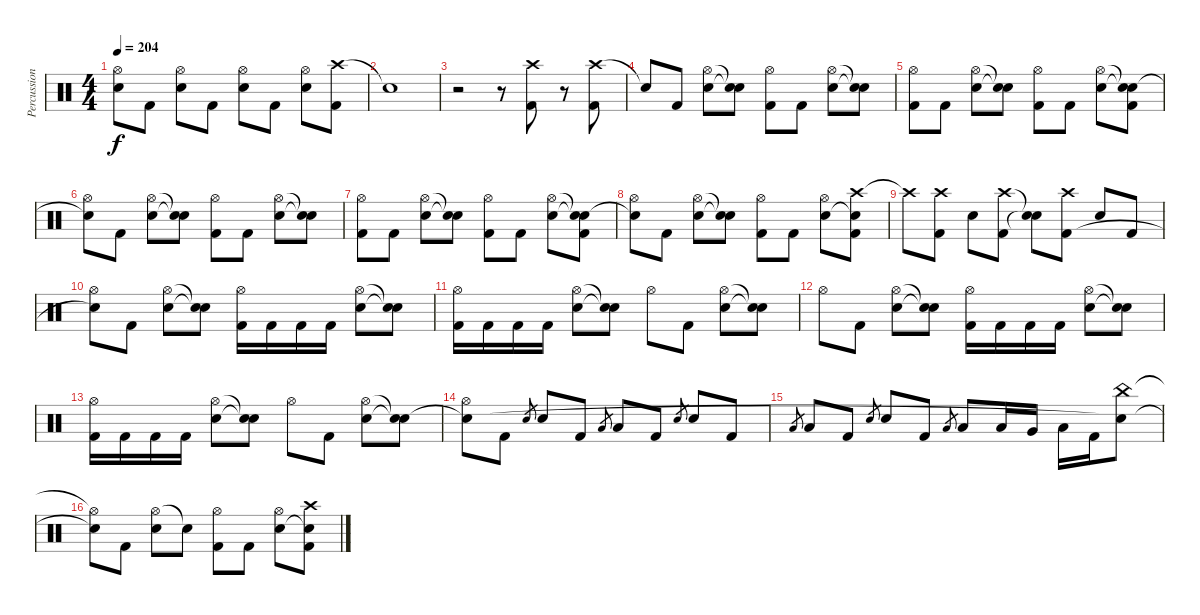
\track ("Percussion" "Percussion") {instrument percussion}
\staff {score}
\articulation defaults
\ts (4 4)
\tempo 204
\clef neutral
\ks c
("Hi-Hat (open)" "Electric Snare (hit)").8{dy f} "Kick (hit) 2".8 ("Hi-Hat (open)" "Electric Snare (hit)").8 "Kick (hit) 2".8 ("Hi-Hat (open)" "Electric Snare (hit)").8 "Kick (hit) 2".8 ("Hi-Hat (open)" "Electric Snare (hit)").8 ("Crash high (hit)" "Kick (hit) 2").8 |
"Snare (hit)"{t}.1 |
r.2 r.8 ("Crash high (hit)" "Kick (hit) 2").8 r.8 ("Crash high (hit)" "Kick (hit) 2").8 |
"Snare (hit)"{t}.8 "Kick (hit) 2".8 ("Hi-Hat (open)" "Electric Snare (hit)").8 ("Snare (hit)"{t} "Snare (hit)"{t}).8 ("Hi-Hat (open)" "Kick (hit) 2").8 "Kick (hit) 2".8 ("Hi-Hat (open)" "Electric Snare (hit)").8 ("Snare (hit)"{t} "Snare (hit)"{t}).8 |
("Hi-Hat (open)" "Kick (hit) 2").8 "Kick (hit) 2".8 ("Hi-Hat (open)" "Electric Snare (hit)").8 ("Snare (hit)"{t} "Snare (hit)"{t}).8 ("Hi-Hat (open)" "Kick (hit) 2").8 "Kick (hit) 2".8 ("Hi-Hat (open)" "Electric Snare (hit)").8 ("Snare (hit)"{t} "Snare (hit)"{t} "Kick (hit) 2").8 |
("Hi-Hat (open)" "Snare (hit)"{t}).8 "Kick (hit) 2".8 ("Hi-Hat (open)" "Electric Snare (hit)").8 ("Snare (hit)"{t} "Snare (hit)"{t}).8 ("Hi-Hat (open)" "Kick (hit) 2").8 "Kick (hit) 2".8 ("Hi-Hat (open)" "Electric Snare (hit)").8 ("Snare (hit)"{t} "Snare (hit)"{t}).8 |
("Hi-Hat (open)" "Kick (hit) 2").8 "Kick (hit) 2".8 ("Hi-Hat (open)" "Electric Snare (hit)").8 ("Snare (hit)"{t} "Snare (hit)"{t}).8 ("Hi-Hat (open)" "Kick (hit) 2").8 "Kick (hit) 2".8 ("Hi-Hat (open)" "Electric Snare (hit)").8 ("Snare (hit)"{t} "Snare (hit)"{t} "Kick (hit) 2").8 |
("Hi-Hat (open)" "Snare (hit)"{t}).8 "Kick (hit) 2".8 ("Hi-Hat (open)" "Snare (hit) 2").8 ("Snare (hit)"{t} "Snare (hit)"{t}).8 ("Hi-Hat (open)" "Kick (hit) 2").8 "Kick (hit) 2".8 ("Hi-Hat (open)" "Electric Snare (hit)").8 ("Crash high (hit)" "Snare (hit)"{t} "Kick (hit) 2").8 |
"Crash high (hit)"{t}.8 ("Crash high (hit)" "Kick (hit) 2").8 "Electric Snare (hit)".8 ("Crash high (hit)" "Kick (hit) 2").8 ("Snare (hit)"{t} "Snare (hit)"{t}).8 ("Crash high (hit)" "Kick (hit) 2").8 "Electric Snare (hit)".8 "Kick (hit) 2".8 |
("Hi-Hat (open)" "Snare (hit)"{t}).8 "Kick (hit) 2".8 ("Hi-Hat (open)" "Electric Snare (hit)").8 ("Snare (hit)"{t} "Snare (hit)"{t}).8 ("Hi-Hat (open)" "Kick (hit) 2").16 "Kick (hit) 2".16 "Kick (hit) 2".16 "Kick (hit) 2".16 ("Hi-Hat (open)" "Electric Snare (hit)").8 ("Snare (hit)"{t} "Snare (hit)"{t}).8 |
("Hi-Hat (open)" "Kick (hit) 2").16 "Kick (hit) 2".16 "Kick (hit) 2".16 "Kick (hit) 2".16 ("Hi-Hat (open)" "Electric Snare (hit)").8 ("Snare (hit)"{t} "Snare (hit)"{t}).8 "Hi-Hat (open)".8 "Kick (hit) 2".8 ("Hi-Hat (open)" "Electric Snare (hit)").8 ("Snare (hit)"{t} "Snare (hit)"{t}).8 |
"Hi-Hat (open)".8 "Kick (hit) 2".8 ("Hi-Hat (open)" "Electric Snare (hit)").8 ("Snare (hit)"{t} "Snare (hit)"{t}).8 ("Hi-Hat (open)" "Kick (hit) 2").16 "Kick (hit) 2".16 "Kick (hit) 2".16 "Kick (hit) 2".16 ("Hi-Hat (open)" "Electric Snare (hit)").8 ("Snare (hit)"{t} "Snare (hit)"{t}).8 |
("Hi-Hat (open)" "Kick (hit) 2").16 "Kick (hit) 2".16 "Kick (hit) 2".16 "Kick (hit) 2".16 ("Hi-Hat (open)" "Electric Snare (hit)").8 ("Snare (hit)"{t} "Snare (hit)"{t}).8 "Hi-Hat (open)".8 "Kick (hit) 2".8 ("Hi-Hat (open)" "Electric Snare (hit)").8 ("Snare (hit)"{t} "Snare (hit)"{t}).8 |
("Hi-Hat (open)" "Snare (hit)"{t}).8 "Kick (hit) 2".8 "Snare (hit) 2".8{gr} "Electric Snare (hit)".8 "Kick (hit) 2".8 "Low Tom (hit)".8{gr} "Low Tom (hit)".8 "Kick (hit) 2".8 "Snare (hit) 2".8{gr} "Electric Snare (hit)".8 "Kick (hit) 2".8 |
"Low Tom (hit)".8{gr} "Low Tom (hit)".8 "Kick (hit) 2".8 "Snare (hit) 2".8{gr} "Electric Snare (hit)".8 "Kick (hit) 2".8 "Low Tom (hit)".8{gr} "Low Tom (hit)".8 "Low Tom (hit)".16 "Very Low Tom (hit)".16 "Low Floor Tom (hit)".16 "Kick (hit) 2".16 ("China (hit)" "Snare (hit)"{t}).8 |
("Hi-Hat (open)"{t} "Snare (hit)"{t}).8 "Kick (hit) 2".8 ("Hi-Hat (open)" "Electric Snare (hit)").8 "Snare (hit)"{t}.8 ("Hi-Hat (open)" "Kick (hit) 2").8 "Kick (hit) 2".8 ("Hi-Hat (open)" "Electric Snare (hit)").8 ("Crash high (hit)" "Snare (hit)"{t} "Kick (hit) 2").8
